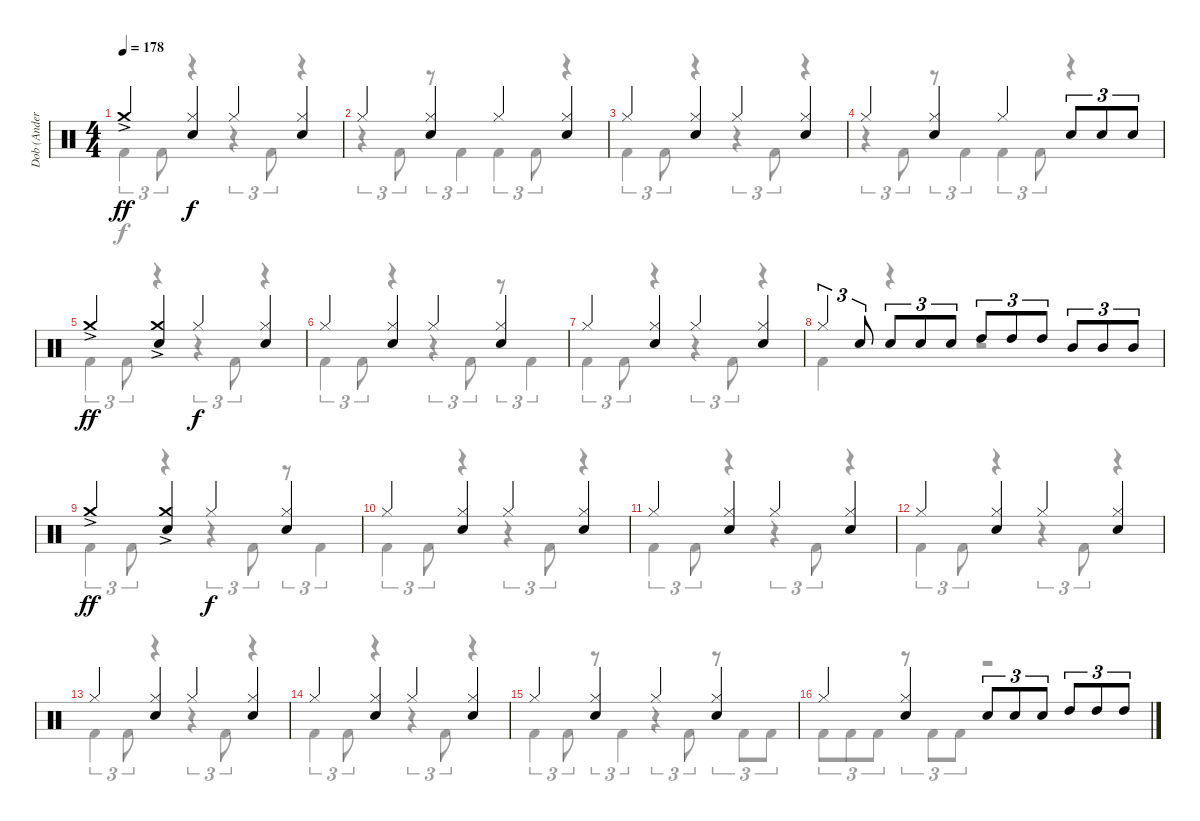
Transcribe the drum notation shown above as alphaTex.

\track ("Dob (Anders Johansson)" "Dob (Ander") {instrument percussion}
\staff {score}
\articulation defaults
\voice
\ts (4 4)
\tempo 178
\clef neutral
\ks c "Crash medium (hit)"{ac}.4{dy ff}
("Hi-Hat (closed)" "Electric Snare (hit)").4{dy f} "Hi-Hat (closed)".4 ("Hi-Hat (closed)" "Electric Snare (hit)").4 |
"Hi-Hat (closed)".4 ("Hi-Hat (closed)" "Electric Snare (hit)").4 "Hi-Hat (closed)".4 ("Hi-Hat (closed)" "Electric Snare (hit)").4 |
"Hi-Hat (closed)".4 ("Hi-Hat (closed)" "Electric Snare (hit)").4 "Hi-Hat (closed)".4 ("Hi-Hat (closed)" "Electric Snare (hit)").4 |
"Hi-Hat (closed)".4 ("Hi-Hat (closed)" "Electric Snare (hit)").4 "Hi-Hat (closed)".4 "Electric Snare (hit)".8{tu (3 2)} "Electric Snare (hit)".8{tu (3 2)} "Electric Snare (hit)".8{tu (3 2)} |
"Crash medium (hit)"{ac}.4{dy ff} ("Crash medium (hit)"{ac} "Electric Snare (hit)").4 "Hi-Hat (closed)".4{dy f} ("Hi-Hat (closed)" "Electric Snare (hit)").4 |
"Hi-Hat (closed)".4 ("Hi-Hat (closed)" "Electric Snare (hit)").4 "Hi-Hat (closed)".4 ("Hi-Hat (closed)" "Electric Snare (hit)").4 |
"Hi-Hat (closed)".4 ("Hi-Hat (closed)" "Electric Snare (hit)").4 "Hi-Hat (closed)".4 ("Hi-Hat (closed)" "Electric Snare (hit)").4 |
"Hi-Hat (closed)".4{tu (3 2)} "Electric Snare (hit)".8{tu (3 2)} "Electric Snare (hit)".8{tu (3 2)} "Electric Snare (hit)".8{tu (3 2)} "Electric Snare (hit)".8{tu (3 2)} "High Tom (hit)".8{tu (3 2)} "High Tom (hit)".8{tu (3 2)} "High Tom (hit)".8{tu (3 2)} "Mid Tom (hit)".8{tu (3 2)} "Mid Tom (hit)".8{tu (3 2)} "Mid Tom (hit)".8{tu (3 2)} |
"Crash medium (hit)"{ac}.4{dy ff} ("Crash medium (hit)"{ac} "Electric Snare (hit)").4 "Hi-Hat (closed)".4{dy f} ("Hi-Hat (closed)" "Electric Snare (hit)").4 |
"Hi-Hat (closed)".4 ("Hi-Hat (closed)" "Electric Snare (hit)").4 "Hi-Hat (closed)".4 ("Hi-Hat (closed)" "Electric Snare (hit)").4 |
"Hi-Hat (closed)".4 ("Hi-Hat (closed)" "Electric Snare (hit)").4 "Hi-Hat (closed)".4 ("Hi-Hat (closed)" "Electric Snare (hit)").4 |
"Hi-Hat (closed)".4 ("Hi-Hat (closed)" "Electric Snare (hit)").4 "Hi-Hat (closed)".4 ("Hi-Hat (closed)" "Electric Snare (hit)").4 |
"Hi-Hat (closed)".4 ("Hi-Hat (closed)" "Electric Snare (hit)").4 "Hi-Hat (closed)".4 ("Hi-Hat (closed)" "Electric Snare (hit)").4 |
"Hi-Hat (closed)".4 ("Hi-Hat (closed)" "Electric Snare (hit)").4 "Hi-Hat (closed)".4 ("Hi-Hat (closed)" "Electric Snare (hit)").4 |
"Hi-Hat (closed)".4 ("Hi-Hat (closed)" "Electric Snare (hit)").4 "Hi-Hat (closed)".4 ("Hi-Hat (closed)" "Electric Snare (hit)").4 |
"Hi-Hat (closed)".4 ("Hi-Hat (closed)" "Electric Snare (hit)").4 "Electric Snare (hit)".8{tu (3 2)} "Electric Snare (hit)".8{tu (3 2)} "Electric Snare (hit)".8{tu (3 2)} "High Tom (hit)".8{tu (3 2)} "High Tom (hit)".8{tu (3 2)} "High Tom (hit)".8{tu (3 2)}
\voice
\clef neutral
\ottava regular
\simile none
\ks c "Kick (hit) 2".4{tu (3 2) dy f} "Kick (hit) 2".8{tu (3 2)}
r.4 r.4{tu (3 2)} "Kick (hit) 2".8{tu (3 2)} r.4 |
r.4{tu (3 2)} "Kick (hit) 2".8{tu (3 2)} r.8{tu (3 2)} "Kick (hit) 2".4{tu (3 2)} "Kick (hit) 2".4{tu (3 2)} "Kick (hit) 2".8{tu (3 2)} r.4 |
"Kick (hit) 2".4{tu (3 2)} "Kick (hit) 2".8{tu (3 2)} r.4 r.4{tu (3 2)} "Kick (hit) 2".8{tu (3 2)} r.4 |
r.4{tu (3 2)} "Kick (hit) 2".8{tu (3 2)} r.8{tu (3 2)} "Kick (hit) 2".4{tu (3 2)} "Kick (hit) 2".4{tu (3 2)} "Kick (hit) 2".8{tu (3 2)} r.4 |
"Kick (hit) 2".4{tu (3 2)} "Kick (hit) 2".8{tu (3 2)} r.4 r.4{tu (3 2)} "Kick (hit) 2".8{tu (3 2)} r.4 |
"Kick (hit) 2".4{tu (3 2)} "Kick (hit) 2".8{tu (3 2)} r.4 r.4{tu (3 2)} "Kick (hit) 2".8{tu (3 2)} r.8{tu (3 2)} "Kick (hit) 2".4{tu (3 2)} |
"Kick (hit) 2".4{tu (3 2)} "Kick (hit) 2".8{tu (3 2)} r.4 r.4{tu (3 2)} "Kick (hit) 2".8{tu (3 2)} r.4 |
"Kick (hit) 2".4 r.4 r.2 |
"Kick (hit) 2".4{tu (3 2)} "Kick (hit) 2".8{tu (3 2)} r.4 r.4{tu (3 2)} "Kick (hit) 2".8{tu (3 2)} r.8{tu (3 2)} "Kick (hit) 2".4{tu (3 2)} |
"Kick (hit) 2".4{tu (3 2)} "Kick (hit) 2".8{tu (3 2)} r.4 r.4{tu (3 2)} "Kick (hit) 2".8{tu (3 2)} r.4 |
"Kick (hit) 2".4{tu (3 2)} "Kick (hit) 2".8{tu (3 2)} r.4 r.4{tu (3 2)} "Kick (hit) 2".8{tu (3 2)} r.4 |
"Kick (hit) 2".4{tu (3 2)} "Kick (hit) 2".8{tu (3 2)} r.4 r.4{tu (3 2)} "Kick (hit) 2".8{tu (3 2)} r.4 |
"Kick (hit) 2".4{tu (3 2)} "Kick (hit) 2".8{tu (3 2)} r.4 r.4{tu (3 2)} "Kick (hit) 2".8{tu (3 2)} r.4 |
"Kick (hit) 2".4{tu (3 2)} "Kick (hit) 2".8{tu (3 2)} r.4 r.4{tu (3 2)} "Kick (hit) 2".8{tu (3 2)} r.4 |
"Kick (hit) 2".4{tu (3 2)} "Kick (hit) 2".8{tu (3 2)} r.8{tu (3 2)} "Kick (hit) 2".4{tu (3 2)} r.4{tu (3 2)} "Kick (hit) 2".8{tu (3 2)} r.8{tu (3 2)} "Kick (hit) 2".8{tu (3 2)} "Kick (hit) 2".8{tu (3 2)} |
"Kick (hit) 2".8{tu (3 2)} "Kick (hit) 2".8{tu (3 2)} "Kick (hit) 2".8{tu (3 2)} r.8{tu (3 2)} "Kick (hit) 2".8{tu (3 2)} "Kick (hit) 2".8{tu (3 2)} r.2
